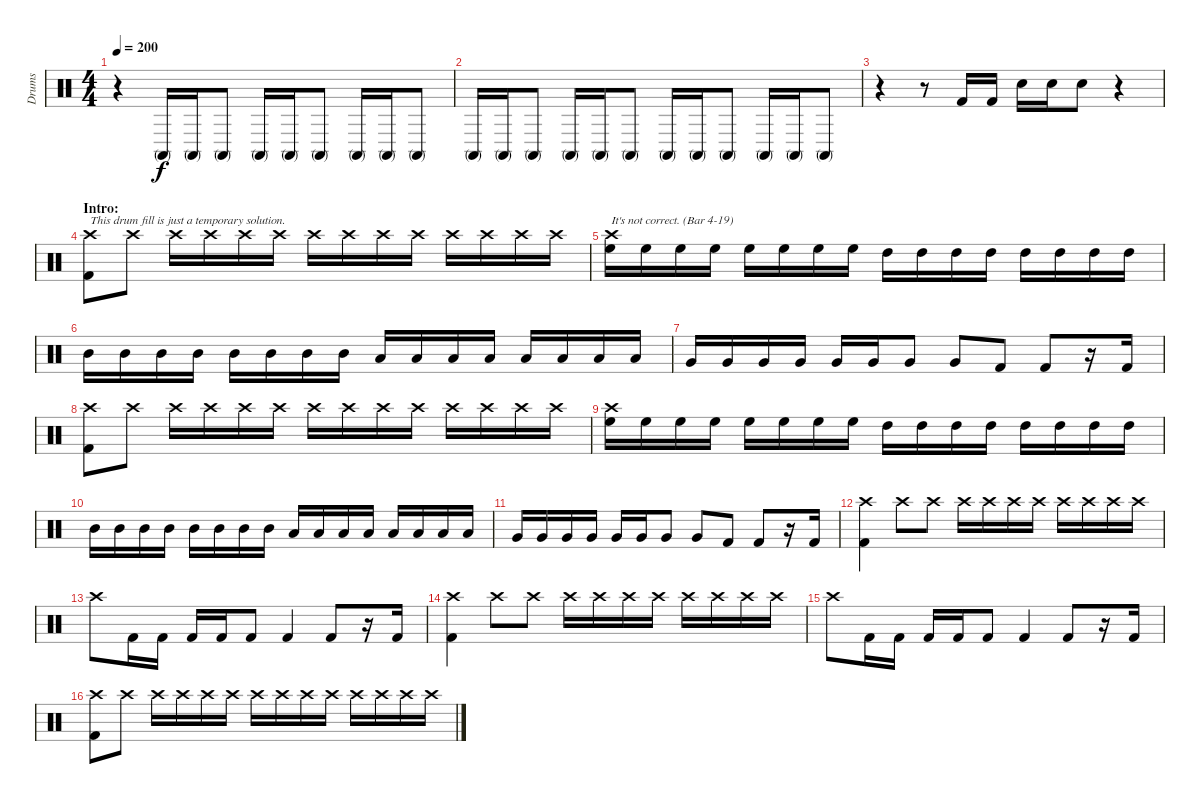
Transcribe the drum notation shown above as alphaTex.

\track ("Drums" "Drums") {instrument percussion}
\staff {score}
\articulation defaults
\ts (4 4)
\tempo 200
\clef neutral
\ks c
r.4{dy f} "Conga high (mute)".16 "Conga high (mute)".16 "Conga high (mute)".8 "Conga high (mute)".16 "Conga high (mute)".16 "Conga high (mute)".8 "Conga high (mute)".16 "Conga high (mute)".16 "Conga high (mute)".8 |
"Conga high (mute)".16 "Conga high (mute)".16 "Conga high (mute)".8 "Conga high (mute)".16 "Conga high (mute)".16 "Conga high (mute)".8 "Conga high (mute)".16 "Conga high (mute)".16 "Conga high (mute)".8 "Conga high (mute)".16 "Conga high (mute)".16 "Conga high (mute)".8 |
r.4 r.8 "Kick (hit) 2".16 "Kick (hit) 2".16 "Electric Snare (hit)".16 "Electric Snare (hit)".16 "Electric Snare (hit)".8 r.4 |
\section ("" "Intro:")
("Crash high (hit)" "Kick (hit) 2").8{txt "This drum fill is just a temporary solution."} "Crash high (hit)".8 "Crash high (hit)".16 "Crash high (hit)".16 "Crash high (hit)".16 "Crash high (hit)".16 "Crash high (hit)".16 "Crash high (hit)".16 "Crash high (hit)".16 "Crash high (hit)".16 "Crash high (hit)".16 "Crash high (hit)".16 "Crash high (hit)".16 "Crash high (hit)".16 |
("Crash high (hit)" "High Floor Tom (hit)").16{txt "It's not correct. (Bar 4-19)"} "High Floor Tom (hit)".16 "High Floor Tom (hit)".16 "High Floor Tom (hit)".16 "High Floor Tom (hit)".16 "High Floor Tom (hit)".16 "High Floor Tom (hit)".16 "High Floor Tom (hit)".16 "High Tom (hit)".16 "High Tom (hit)".16 "High Tom (hit)".16 "High Tom (hit)".16 "High Tom (hit)".16 "High Tom (hit)".16 "High Tom (hit)".16 "High Tom (hit)".16 |
"Mid Tom (hit)".16 "Mid Tom (hit)".16 "Mid Tom (hit)".16 "Mid Tom (hit)".16 "Mid Tom (hit)".16 "Mid Tom (hit)".16 "Mid Tom (hit)".16 "Mid Tom (hit)".16 "Low Tom (hit)".16 "Low Tom (hit)".16 "Low Tom (hit)".16 "Low Tom (hit)".16 "Low Tom (hit)".16 "Low Tom (hit)".16 "Low Tom (hit)".16 "Low Tom (hit)".16 |
"Very Low Tom (hit)".16 "Very Low Tom (hit)".16 "Very Low Tom (hit)".16 "Very Low Tom (hit)".16 "Very Low Tom (hit)".16 "Very Low Tom (hit)".16 "Very Low Tom (hit)".8 "Very Low Tom (hit)".8 "Kick (hit) 2".8 "Kick (hit) 2".8 r.16 "Kick (hit) 2".16 |
("Crash high (hit)" "Kick (hit) 2").8 "Crash high (hit)".8 "Crash high (hit)".16 "Crash high (hit)".16 "Crash high (hit)".16 "Crash high (hit)".16 "Crash high (hit)".16 "Crash high (hit)".16 "Crash high (hit)".16 "Crash high (hit)".16 "Crash high (hit)".16 "Crash high (hit)".16 "Crash high (hit)".16 "Crash high (hit)".16 |
("Crash high (hit)" "High Floor Tom (hit)").16 "High Floor Tom (hit)".16 "High Floor Tom (hit)".16 "High Floor Tom (hit)".16 "High Floor Tom (hit)".16 "High Floor Tom (hit)".16 "High Floor Tom (hit)".16 "High Floor Tom (hit)".16 "High Tom (hit)".16 "High Tom (hit)".16 "High Tom (hit)".16 "High Tom (hit)".16 "High Tom (hit)".16 "High Tom (hit)".16 "High Tom (hit)".16 "High Tom (hit)".16 |
"Mid Tom (hit)".16 "Mid Tom (hit)".16 "Mid Tom (hit)".16 "Mid Tom (hit)".16 "Mid Tom (hit)".16 "Mid Tom (hit)".16 "Mid Tom (hit)".16 "Mid Tom (hit)".16 "Low Tom (hit)".16 "Low Tom (hit)".16 "Low Tom (hit)".16 "Low Tom (hit)".16 "Low Tom (hit)".16 "Low Tom (hit)".16 "Low Tom (hit)".16 "Low Tom (hit)".16 |
"Very Low Tom (hit)".16 "Very Low Tom (hit)".16 "Very Low Tom (hit)".16 "Very Low Tom (hit)".16 "Very Low Tom (hit)".16 "Very Low Tom (hit)".16 "Very Low Tom (hit)".8 "Very Low Tom (hit)".8 "Kick (hit) 2".8 "Kick (hit) 2".8 r.16 "Kick (hit) 2".16 |
("Crash high (hit)" "Kick (hit) 2").4 "Crash high (hit)".8 "Crash high (hit)".8 "Crash high (hit)".16 "Crash high (hit)".16 "Crash high (hit)".16 "Crash high (hit)".16 "Crash high (hit)".16 "Crash high (hit)".16 "Crash high (hit)".16 "Crash high (hit)".16 |
"Crash high (hit)".8 "Kick (hit) 2".16 "Kick (hit) 2".16 "Kick (hit) 2".16 "Kick (hit) 2".16 "Kick (hit) 2".8 "Kick (hit) 2".4 "Kick (hit) 2".8 r.16 "Kick (hit) 2".16 |
("Crash high (hit)" "Kick (hit) 2").4 "Crash high (hit)".8 "Crash high (hit)".8 "Crash high (hit)".16 "Crash high (hit)".16 "Crash high (hit)".16 "Crash high (hit)".16 "Crash high (hit)".16 "Crash high (hit)".16 "Crash high (hit)".16 "Crash high (hit)".16 |
"Crash high (hit)".8 "Kick (hit) 2".16 "Kick (hit) 2".16 "Kick (hit) 2".16 "Kick (hit) 2".16 "Kick (hit) 2".8 "Kick (hit) 2".4 "Kick (hit) 2".8 r.16 "Kick (hit) 2".16 |
("Crash high (hit)" "Kick (hit) 2").8 "Crash high (hit)".8 "Crash high (hit)".16 "Crash high (hit)".16 "Crash high (hit)".16 "Crash high (hit)".16 "Crash high (hit)".16 "Crash high (hit)".16 "Crash high (hit)".16 "Crash high (hit)".16 "Crash high (hit)".16 "Crash high (hit)".16 "Crash high (hit)".16 "Crash high (hit)".16
